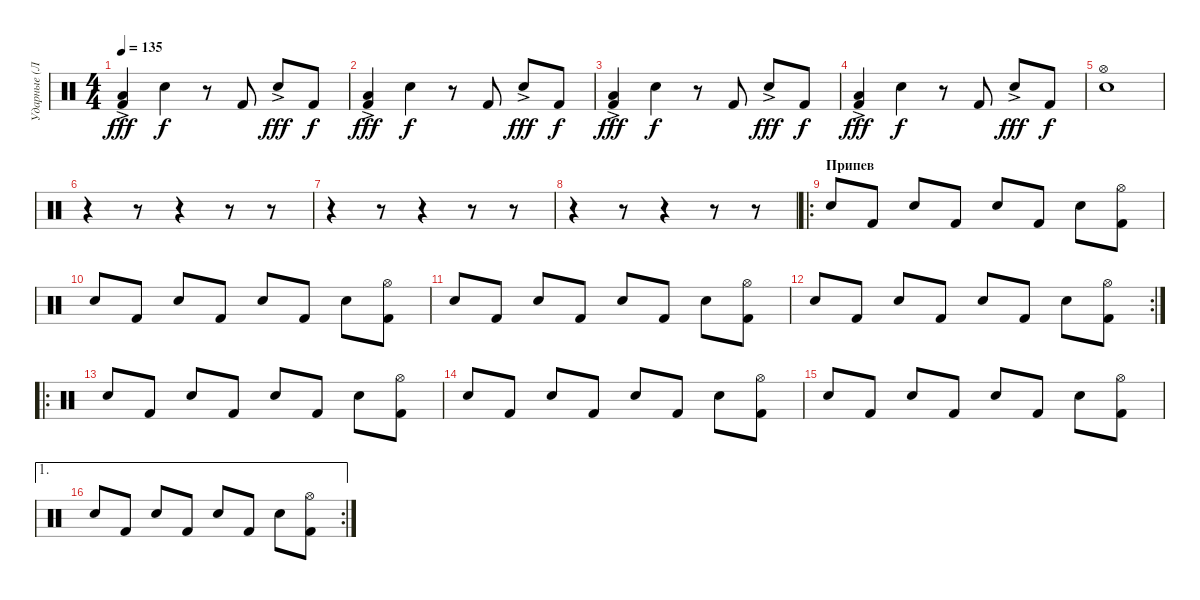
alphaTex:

\track ("Ударные (Лысов)" "Ударные (Л") {instrument percussion}
\staff {score}
\articulation defaults
\ts (4 4)
\tempo 135
\clef neutral
\ks c
("Low Floor Tom (hit)"{ac} "Kick (hit) 2").4{dy fff} "Snare (hit) 2".4{dy f} r.8 "Kick (hit) 2".8 "Snare (hit) 2"{ac}.8{dy fff} "Kick (hit) 2".8{dy f} |
("Low Floor Tom (hit)"{ac} "Kick (hit) 2").4{dy fff} "Snare (hit) 2".4{dy f} r.8 "Kick (hit) 2".8 "Snare (hit) 2"{ac}.8{dy fff} "Kick (hit) 2".8{dy f} |
("Low Floor Tom (hit)"{ac} "Kick (hit) 2").4{dy fff} "Snare (hit) 2".4{dy f} r.8 "Kick (hit) 2".8 "Snare (hit) 2"{ac}.8{dy fff} "Kick (hit) 2".8{dy f} |
("Low Floor Tom (hit)"{ac} "Kick (hit) 2").4{dy fff} "Snare (hit) 2".4{dy f} r.8 "Kick (hit) 2".8 "Snare (hit) 2"{ac}.8{dy fff} "Kick (hit) 2".8{dy f} |
("Hi-Hat (open)" "Snare (hit) 2").1 |
r.4 r.8 r.4 r.8 r.8 |
r.4 r.8 r.4 r.8 r.8 |
r.4 r.8 r.4 r.8 r.8 |
\ro
\section ("" "Припев")
"Snare (hit) 2".8 "Kick (hit) 2".8 "Snare (hit) 2".8 "Kick (hit) 2".8 "Snare (hit) 2".8 "Kick (hit) 2".8 "Snare (hit) 2".8 ("Kick (hit) 2" "Hi-Hat (open)").8 |
"Snare (hit) 2".8 "Kick (hit) 2".8 "Snare (hit) 2".8 "Kick (hit) 2".8 "Snare (hit) 2".8 "Kick (hit) 2".8 "Snare (hit) 2".8 ("Kick (hit) 2" "Hi-Hat (open)").8 |
"Snare (hit) 2".8 "Kick (hit) 2".8 "Snare (hit) 2".8 "Kick (hit) 2".8 "Snare (hit) 2".8 "Kick (hit) 2".8 "Snare (hit) 2".8 ("Kick (hit) 2" "Hi-Hat (open)").8 |
\rc 2 "Snare (hit) 2".8 "Kick (hit) 2".8 "Snare (hit) 2".8 "Kick (hit) 2".8 "Snare (hit) 2".8 "Kick (hit) 2".8 "Snare (hit) 2".8
("Kick (hit) 2" "Hi-Hat (open)").8 |
\ro "Snare (hit) 2".8 "Kick (hit) 2".8 "Snare (hit) 2".8 "Kick (hit) 2".8 "Snare (hit) 2".8 "Kick (hit) 2".8 "Snare (hit) 2".8
("Kick (hit) 2" "Hi-Hat (open)").8 |
"Snare (hit) 2".8 "Kick (hit) 2".8 "Snare (hit) 2".8 "Kick (hit) 2".8 "Snare (hit) 2".8 "Kick (hit) 2".8 "Snare (hit) 2".8 ("Kick (hit) 2" "Hi-Hat (open)").8 |
"Snare (hit) 2".8 "Kick (hit) 2".8 "Snare (hit) 2".8 "Kick (hit) 2".8 "Snare (hit) 2".8 "Kick (hit) 2".8 "Snare (hit) 2".8 ("Kick (hit) 2" "Hi-Hat (open)").8 |
\ae 1
\rc 2 "Snare (hit) 2".8 "Kick (hit) 2".8 "Snare (hit) 2".8 "Kick (hit) 2".8 "Snare (hit) 2".8 "Kick (hit) 2".8 "Snare (hit) 2".8
("Kick (hit) 2" "Hi-Hat (open)").8
